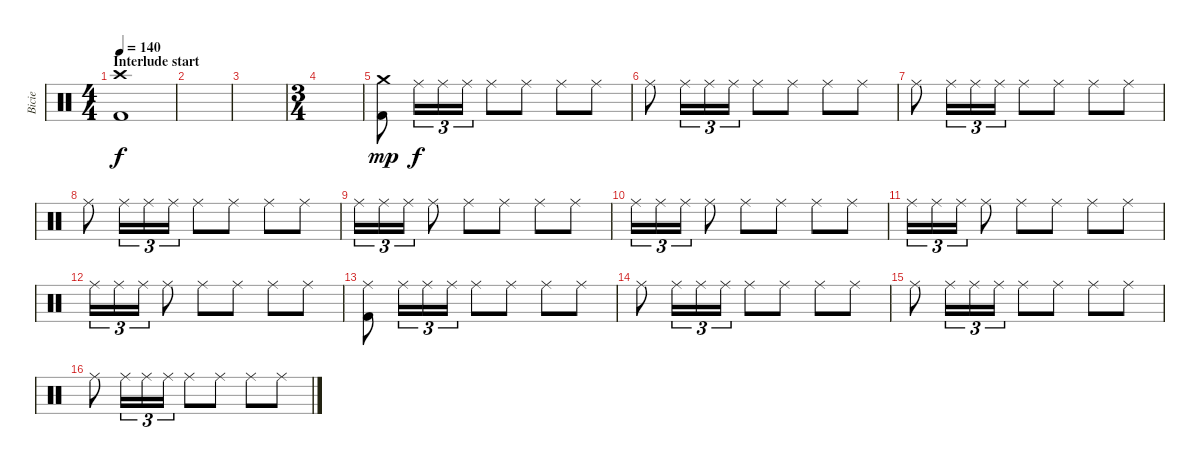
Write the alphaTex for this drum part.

\track ("Bicie" "Bicie") {instrument percussion}
\staff {score}
\articulation defaults
\ts (4 4)
\section ("" "Interlude start")
\tempo 140
\clef neutral
\ks c
("Crash high (hit)" "Kick (hit) 2").1{dy f} |
|
|
\ts (3 4)
|
("Crash medium (hit)" "Kick (hit) 2").8{dy mp} "Ride (middle)".16{tu (3 2) dy f} "Ride (middle)".16{tu (3 2)} "Ride (middle)".16{tu (3 2)} "Ride (middle)".8 "Ride (middle)".8 "Ride (middle)".8 "Ride (middle)".8 |
"Ride (middle)".8 "Ride (middle)".16{tu (3 2)} "Ride (middle)".16{tu (3 2)} "Ride (middle)".16{tu (3 2)} "Ride (middle)".8 "Ride (middle)".8 "Ride (middle)".8 "Ride (middle)".8 |
"Ride (middle)".8 "Ride (middle)".16{tu (3 2)} "Ride (middle)".16{tu (3 2)} "Ride (middle)".16{tu (3 2)} "Ride (middle)".8 "Ride (middle)".8 "Ride (middle)".8 "Ride (middle)".8 |
"Ride (middle)".8 "Ride (middle)".16{tu (3 2)} "Ride (middle)".16{tu (3 2)} "Ride (middle)".16{tu (3 2)} "Ride (middle)".8 "Ride (middle)".8 "Ride (middle)".8 "Ride (middle)".8 |
"Ride (middle)".16{tu (3 2)} "Ride (middle)".16{tu (3 2)} "Ride (middle)".16{tu (3 2)} "Ride (middle)".8 "Ride (middle)".8 "Ride (middle)".8 "Ride (middle)".8 "Ride (middle)".8 |
"Ride (middle)".16{tu (3 2)} "Ride (middle)".16{tu (3 2)} "Ride (middle)".16{tu (3 2)} "Ride (middle)".8 "Ride (middle)".8 "Ride (middle)".8 "Ride (middle)".8 "Ride (middle)".8 |
"Ride (middle)".16{tu (3 2)} "Ride (middle)".16{tu (3 2)} "Ride (middle)".16{tu (3 2)} "Ride (middle)".8 "Ride (middle)".8 "Ride (middle)".8 "Ride (middle)".8 "Ride (middle)".8 |
"Ride (middle)".16{tu (3 2)} "Ride (middle)".16{tu (3 2)} "Ride (middle)".16{tu (3 2)} "Ride (middle)".8 "Ride (middle)".8 "Ride (middle)".8 "Ride (middle)".8 "Ride (middle)".8 |
("Ride (middle)" "Kick (hit) 2").8 "Ride (middle)".16{tu (3 2)} "Ride (middle)".16{tu (3 2)} "Ride (middle)".16{tu (3 2)} "Ride (middle)".8 "Ride (middle)".8 "Ride (middle)".8 "Ride (middle)".8 |
"Ride (middle)".8 "Ride (middle)".16{tu (3 2)} "Ride (middle)".16{tu (3 2)} "Ride (middle)".16{tu (3 2)} "Ride (middle)".8 "Ride (middle)".8 "Ride (middle)".8 "Ride (middle)".8 |
"Ride (middle)".8 "Ride (middle)".16{tu (3 2)} "Ride (middle)".16{tu (3 2)} "Ride (middle)".16{tu (3 2)} "Ride (middle)".8 "Ride (middle)".8 "Ride (middle)".8 "Ride (middle)".8 |
"Ride (middle)".8 "Ride (middle)".16{tu (3 2)} "Ride (middle)".16{tu (3 2)} "Ride (middle)".16{tu (3 2)} "Ride (middle)".8 "Ride (middle)".8 "Ride (middle)".8 "Ride (middle)".8
